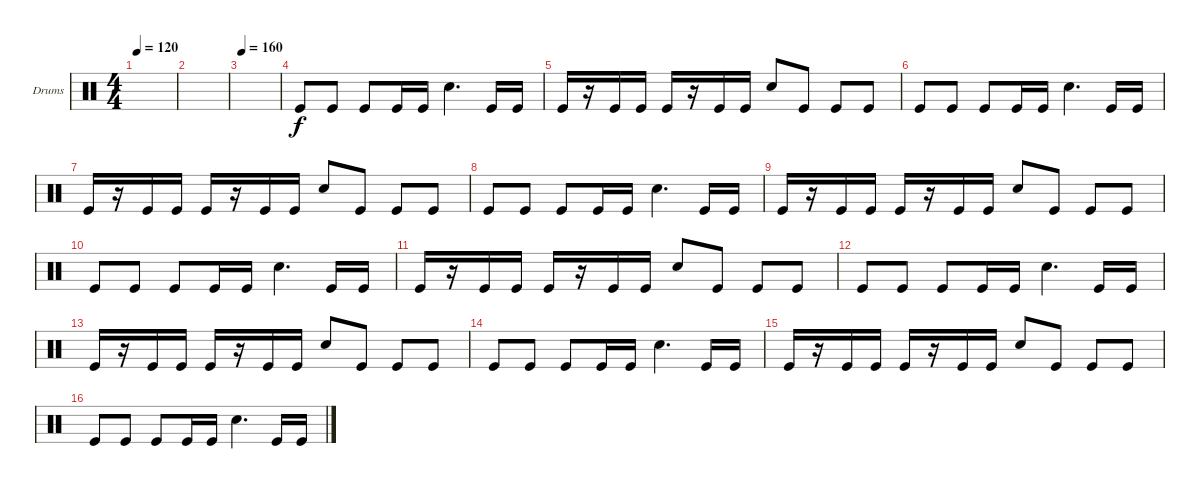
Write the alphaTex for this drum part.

\defaultSystemsLayout 4
\bracketExtendMode groupsimilarinstruments
\firstSystemTrackNameOrientation horizontal
\otherSystemsTrackNameOrientation horizontal
\track ("Drumkit" "Drums") {instrument percussion}
\staff {score}
\articulation defaults
\ts (4 4)
\tempo 120
\clef neutral
\ks c
|
|
\tempo 160
|
"Kick (hit)".8 "Kick (hit)".8 "Kick (hit)".8 "Kick (hit)".16 "Kick (hit)".16 "Snare (hit) 2".4{d} "Kick (hit)".16 "Kick (hit)".16 |
"Kick (hit)".16 r.16 "Kick (hit)".16 "Kick (hit)".16 "Kick (hit)".16 r.16 "Kick (hit)".16 "Kick (hit)".16 "Snare (hit) 2".8 "Kick (hit)".8 "Kick (hit)".8 "Kick (hit)".8 |
"Kick (hit)".8 "Kick (hit)".8 "Kick (hit)".8 "Kick (hit)".16 "Kick (hit)".16 "Snare (hit) 2".4{d} "Kick (hit)".16 "Kick (hit)".16 |
"Kick (hit)".16 r.16 "Kick (hit)".16 "Kick (hit)".16 "Kick (hit)".16 r.16 "Kick (hit)".16 "Kick (hit)".16 "Snare (hit) 2".8 "Kick (hit)".8 "Kick (hit)".8 "Kick (hit)".8 |
"Kick (hit)".8 "Kick (hit)".8 "Kick (hit)".8 "Kick (hit)".16 "Kick (hit)".16 "Snare (hit) 2".4{d} "Kick (hit)".16 "Kick (hit)".16 |
"Kick (hit)".16 r.16 "Kick (hit)".16 "Kick (hit)".16 "Kick (hit)".16 r.16 "Kick (hit)".16 "Kick (hit)".16 "Snare (hit) 2".8 "Kick (hit)".8 "Kick (hit)".8 "Kick (hit)".8 |
"Kick (hit)".8 "Kick (hit)".8 "Kick (hit)".8 "Kick (hit)".16 "Kick (hit)".16 "Snare (hit) 2".4{d} "Kick (hit)".16 "Kick (hit)".16 |
"Kick (hit)".16 r.16 "Kick (hit)".16 "Kick (hit)".16 "Kick (hit)".16 r.16 "Kick (hit)".16 "Kick (hit)".16 "Snare (hit) 2".8 "Kick (hit)".8 "Kick (hit)".8 "Kick (hit)".8 |
"Kick (hit)".8 "Kick (hit)".8 "Kick (hit)".8 "Kick (hit)".16 "Kick (hit)".16 "Snare (hit) 2".4{d} "Kick (hit)".16 "Kick (hit)".16 |
"Kick (hit)".16 r.16 "Kick (hit)".16 "Kick (hit)".16 "Kick (hit)".16 r.16 "Kick (hit)".16 "Kick (hit)".16 "Snare (hit) 2".8 "Kick (hit)".8 "Kick (hit)".8 "Kick (hit)".8 |
"Kick (hit)".8 "Kick (hit)".8 "Kick (hit)".8 "Kick (hit)".16 "Kick (hit)".16 "Snare (hit) 2".4{d} "Kick (hit)".16 "Kick (hit)".16 |
"Kick (hit)".16 r.16 "Kick (hit)".16 "Kick (hit)".16 "Kick (hit)".16 r.16 "Kick (hit)".16 "Kick (hit)".16 "Snare (hit) 2".8 "Kick (hit)".8 "Kick (hit)".8 "Kick (hit)".8 |
"Kick (hit)".8 "Kick (hit)".8 "Kick (hit)".8 "Kick (hit)".16 "Kick (hit)".16 "Snare (hit) 2".4{d} "Kick (hit)".16 "Kick (hit)".16
